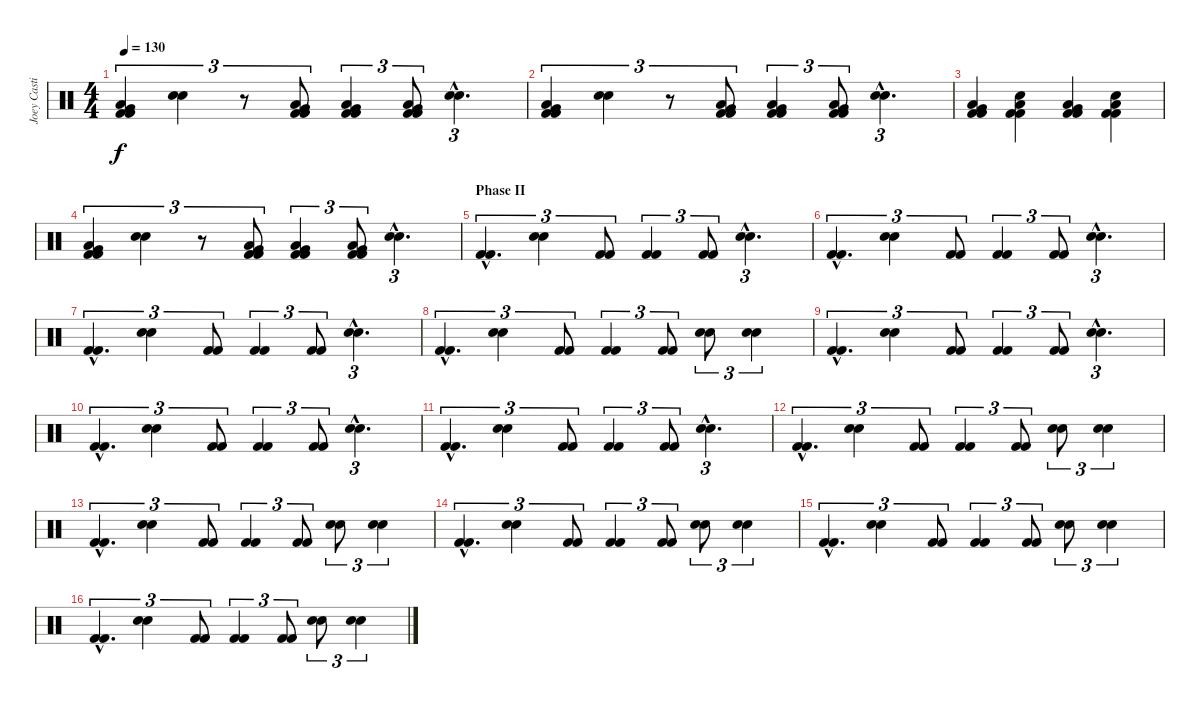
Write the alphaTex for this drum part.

\track ("Joey Castillo" "Joey Casti") {instrument percussion}
\staff {score}
\articulation defaults
\ts (4 4)
\tempo 130
\clef neutral
\ks c
("Low Floor Tom (hit)" "Very Low Tom (hit)" "Kick (hit) 2" "Kick (hit) 2").4{tu (3 2) dy f} ("Electric Snare (hit)" "Electric Snare (hit)").4{tu (3 2)} r.8{tu (3 2)} ("Low Floor Tom (hit)" "Very Low Tom (hit)" "Kick (hit) 2" "Kick (hit) 2").8{tu (3 2)} ("Low Floor Tom (hit)" "Very Low Tom (hit)" "Kick (hit) 2" "Kick (hit) 2").4{tu (3 2)} ("Low Floor Tom (hit)" "Very Low Tom (hit)" "Kick (hit) 2" "Kick (hit) 2").8{tu (3 2)} ("Electric Snare (hit)"{hac} "Electric Snare (hit)"{hac}).4{d tu (3 2)} |
("Low Floor Tom (hit)" "Very Low Tom (hit)" "Kick (hit) 2" "Kick (hit) 2").4{tu (3 2)} ("Electric Snare (hit)" "Electric Snare (hit)").4{tu (3 2)} r.8{tu (3 2)} ("Low Floor Tom (hit)" "Very Low Tom (hit)" "Kick (hit) 2" "Kick (hit) 2").8{tu (3 2)} ("Low Floor Tom (hit)" "Very Low Tom (hit)" "Kick (hit) 2" "Kick (hit) 2").4{tu (3 2)} ("Low Floor Tom (hit)" "Very Low Tom (hit)" "Kick (hit) 2" "Kick (hit) 2").8{tu (3 2)} ("Electric Snare (hit)"{hac} "Electric Snare (hit)"{hac}).4{d tu (3 2)} |
("Low Floor Tom (hit)" "Very Low Tom (hit)" "Kick (hit) 2" "Kick (hit) 2").4 ("Low Floor Tom (hit)" "Electric Snare (hit)" "Kick (hit) 2" "Kick (hit) 2").4 ("Low Floor Tom (hit)" "Very Low Tom (hit)" "Kick (hit) 2" "Kick (hit) 2").4 ("Low Floor Tom (hit)" "Electric Snare (hit)" "Kick (hit) 2" "Kick (hit) 2").4 |
("Low Floor Tom (hit)" "Very Low Tom (hit)" "Kick (hit) 2" "Kick (hit) 2").4{tu (3 2)} ("Electric Snare (hit)" "Electric Snare (hit)").4{tu (3 2)} r.8{tu (3 2)} ("Low Floor Tom (hit)" "Very Low Tom (hit)" "Kick (hit) 2" "Kick (hit) 2").8{tu (3 2)} ("Low Floor Tom (hit)" "Very Low Tom (hit)" "Kick (hit) 2" "Kick (hit) 2").4{tu (3 2)} ("Low Floor Tom (hit)" "Very Low Tom (hit)" "Kick (hit) 2" "Kick (hit) 2").8{tu (3 2)} ("Electric Snare (hit)"{hac} "Electric Snare (hit)"{hac}).4{d tu (3 2)} |
\section ("" "Phase II")
("Kick (hit) 2"{hac} "Kick (hit) 2"{hac}).4{d tu (3 2)} ("Electric Snare (hit)" "Electric Snare (hit)").4{tu (3 2)} ("Kick (hit) 2" "Kick (hit) 2").8{tu (3 2)} ("Kick (hit) 2" "Kick (hit) 2").4{tu (3 2)} ("Kick (hit) 2" "Kick (hit) 2").8{tu (3 2)} ("Electric Snare (hit)"{hac} "Electric Snare (hit)"{hac}).4{d tu (3 2)} |
("Kick (hit) 2"{hac} "Kick (hit) 2"{hac}).4{d tu (3 2)} ("Electric Snare (hit)" "Electric Snare (hit)").4{tu (3 2)} ("Kick (hit) 2" "Kick (hit) 2").8{tu (3 2)} ("Kick (hit) 2" "Kick (hit) 2").4{tu (3 2)} ("Kick (hit) 2" "Kick (hit) 2").8{tu (3 2)} ("Electric Snare (hit)"{hac} "Electric Snare (hit)"{hac}).4{d tu (3 2)} |
("Kick (hit) 2"{hac} "Kick (hit) 2"{hac}).4{d tu (3 2)} ("Electric Snare (hit)" "Electric Snare (hit)").4{tu (3 2)} ("Kick (hit) 2" "Kick (hit) 2").8{tu (3 2)} ("Kick (hit) 2" "Kick (hit) 2").4{tu (3 2)} ("Kick (hit) 2" "Kick (hit) 2").8{tu (3 2)} ("Electric Snare (hit)"{hac} "Electric Snare (hit)"{hac}).4{d tu (3 2)} |
("Kick (hit) 2"{hac} "Kick (hit) 2"{hac}).4{d tu (3 2)} ("Electric Snare (hit)" "Electric Snare (hit)").4{tu (3 2)} ("Kick (hit) 2" "Kick (hit) 2").8{tu (3 2)} ("Kick (hit) 2" "Kick (hit) 2").4{tu (3 2)} ("Kick (hit) 2" "Kick (hit) 2").8{tu (3 2)} ("Electric Snare (hit)" "Electric Snare (hit)").8{tu (3 2)} ("Electric Snare (hit)" "Electric Snare (hit)").4{tu (3 2)} |
("Kick (hit) 2"{hac} "Kick (hit) 2"{hac}).4{d tu (3 2)} ("Electric Snare (hit)" "Electric Snare (hit)").4{tu (3 2)} ("Kick (hit) 2" "Kick (hit) 2").8{tu (3 2)} ("Kick (hit) 2" "Kick (hit) 2").4{tu (3 2)} ("Kick (hit) 2" "Kick (hit) 2").8{tu (3 2)} ("Electric Snare (hit)"{hac} "Electric Snare (hit)"{hac}).4{d tu (3 2)} |
("Kick (hit) 2"{hac} "Kick (hit) 2"{hac}).4{d tu (3 2)} ("Electric Snare (hit)" "Electric Snare (hit)").4{tu (3 2)} ("Kick (hit) 2" "Kick (hit) 2").8{tu (3 2)} ("Kick (hit) 2" "Kick (hit) 2").4{tu (3 2)} ("Kick (hit) 2" "Kick (hit) 2").8{tu (3 2)} ("Electric Snare (hit)"{hac} "Electric Snare (hit)"{hac}).4{d tu (3 2)} |
("Kick (hit) 2"{hac} "Kick (hit) 2"{hac}).4{d tu (3 2)} ("Electric Snare (hit)" "Electric Snare (hit)").4{tu (3 2)} ("Kick (hit) 2" "Kick (hit) 2").8{tu (3 2)} ("Kick (hit) 2" "Kick (hit) 2").4{tu (3 2)} ("Kick (hit) 2" "Kick (hit) 2").8{tu (3 2)} ("Electric Snare (hit)"{hac} "Electric Snare (hit)"{hac}).4{d tu (3 2)} |
("Kick (hit) 2"{hac} "Kick (hit) 2"{hac}).4{d tu (3 2)} ("Electric Snare (hit)" "Electric Snare (hit)").4{tu (3 2)} ("Kick (hit) 2" "Kick (hit) 2").8{tu (3 2)} ("Kick (hit) 2" "Kick (hit) 2").4{tu (3 2)} ("Kick (hit) 2" "Kick (hit) 2").8{tu (3 2)} ("Electric Snare (hit)" "Electric Snare (hit)").8{tu (3 2)} ("Electric Snare (hit)" "Electric Snare (hit)").4{tu (3 2)} |
("Kick (hit) 2"{hac} "Kick (hit) 2"{hac}).4{d tu (3 2)} ("Electric Snare (hit)" "Electric Snare (hit)").4{tu (3 2)} ("Kick (hit) 2" "Kick (hit) 2").8{tu (3 2)} ("Kick (hit) 2" "Kick (hit) 2").4{tu (3 2)} ("Kick (hit) 2" "Kick (hit) 2").8{tu (3 2)} ("Electric Snare (hit)" "Electric Snare (hit)").8{tu (3 2)} ("Electric Snare (hit)" "Electric Snare (hit)").4{tu (3 2)} |
("Kick (hit) 2"{hac} "Kick (hit) 2"{hac}).4{d tu (3 2)} ("Electric Snare (hit)" "Electric Snare (hit)").4{tu (3 2)} ("Kick (hit) 2" "Kick (hit) 2").8{tu (3 2)} ("Kick (hit) 2" "Kick (hit) 2").4{tu (3 2)} ("Kick (hit) 2" "Kick (hit) 2").8{tu (3 2)} ("Electric Snare (hit)" "Electric Snare (hit)").8{tu (3 2)} ("Electric Snare (hit)" "Electric Snare (hit)").4{tu (3 2)} |
("Kick (hit) 2"{hac} "Kick (hit) 2"{hac}).4{d tu (3 2)} ("Electric Snare (hit)" "Electric Snare (hit)").4{tu (3 2)} ("Kick (hit) 2" "Kick (hit) 2").8{tu (3 2)} ("Kick (hit) 2" "Kick (hit) 2").4{tu (3 2)} ("Kick (hit) 2" "Kick (hit) 2").8{tu (3 2)} ("Electric Snare (hit)" "Electric Snare (hit)").8{tu (3 2)} ("Electric Snare (hit)" "Electric Snare (hit)").4{tu (3 2)} |
("Kick (hit) 2"{hac} "Kick (hit) 2"{hac}).4{d tu (3 2)} ("Electric Snare (hit)" "Electric Snare (hit)").4{tu (3 2)} ("Kick (hit) 2" "Kick (hit) 2").8{tu (3 2)} ("Kick (hit) 2" "Kick (hit) 2").4{tu (3 2)} ("Kick (hit) 2" "Kick (hit) 2").8{tu (3 2)} ("Electric Snare (hit)" "Electric Snare (hit)").8{tu (3 2)} ("Electric Snare (hit)" "Electric Snare (hit)").4{tu (3 2)}
